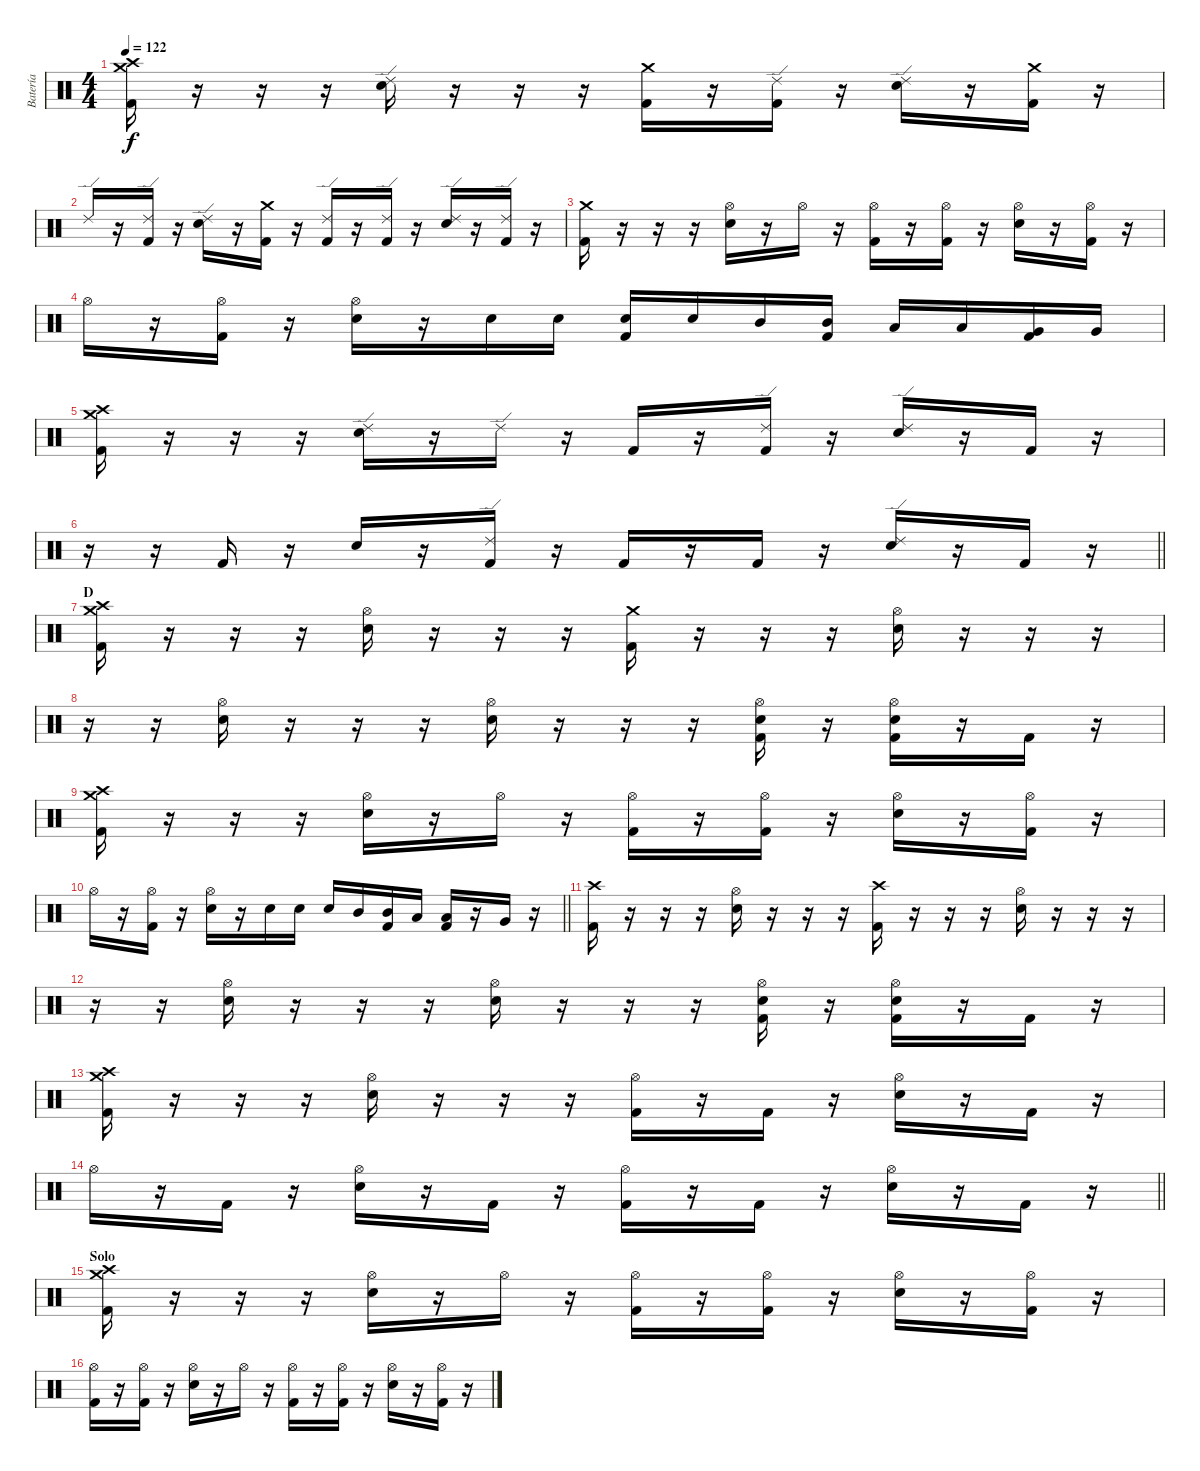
\track ("Batería" "Batería") {instrument percussion}
\staff {score}
\articulation defaults
\ts (4 4)
\tempo 122
\clef neutral
\ks c
("Crash high (hit)" "Kick (hit) 2" "Crash medium (hit)").16{dy f} r.16 r.16 r.16 ("Electric Snare (hit)" "Ride (edge) 2").16 r.16 r.16 r.16 ("Kick (hit) 2" "Crash medium (hit)").16 r.16 ("Kick (hit) 2" "Ride (edge) 2").16 r.16 ("Electric Snare (hit)" "Ride (edge) 2").16 r.16 ("Kick (hit) 2" "Crash medium (hit)").16 r.16 |
"Ride (edge) 2".16 r.16 ("Kick (hit) 2" "Ride (edge) 2").16 r.16 ("Electric Snare (hit)" "Ride (edge) 2").16 r.16 ("Kick (hit) 2" "Crash medium (hit)").16 r.16 ("Kick (hit) 2" "Ride (edge) 2").16 r.16 ("Kick (hit) 2" "Ride (edge) 2").16 r.16 ("Electric Snare (hit)" "Ride (edge) 2").16 r.16 ("Kick (hit) 2" "Ride (edge) 2").16 r.16 |
("Kick (hit) 2" "Crash medium (hit)").16 r.16 r.16 r.16 ("Electric Snare (hit)" "Hi-Hat (open)").16 r.16 "Hi-Hat (open)".16 r.16 ("Kick (hit) 2" "Hi-Hat (open)").16 r.16 ("Kick (hit) 2" "Hi-Hat (open)").16 r.16 ("Electric Snare (hit)" "Hi-Hat (open)").16 r.16 ("Kick (hit) 2" "Hi-Hat (open)").16 r.16 |
"Hi-Hat (open)".16 r.16 ("Kick (hit) 2" "Hi-Hat (open)").16 r.16 ("Electric Snare (hit)" "Hi-Hat (open)").16 r.16 "Electric Snare (hit)".16 "Electric Snare (hit)".16 ("Electric Snare (hit)" "Kick (hit) 2").16 "Electric Snare (hit)".16 "Mid Tom (hit)".16 ("Mid Tom (hit)" "Kick (hit) 2").16 "Low Tom (hit)".16 "Low Tom (hit)".16 ("Very Low Tom (hit)" "Kick (hit) 2").16 "Very Low Tom (hit)".16 |
("Crash high (hit)" "Kick (hit) 2" "Crash medium (hit)").16 r.16 r.16 r.16 ("Electric Snare (hit)" "Ride (edge) 2").16 r.16 "Ride (edge) 2".16 r.16 "Kick (hit) 2".16 r.16 ("Kick (hit) 2" "Ride (edge) 2").16 r.16 ("Electric Snare (hit)" "Ride (edge) 2").16 r.16 "Kick (hit) 2".16 r.16 |
\barLineRight lightlight
r.16 r.16 "Kick (hit) 2".16 r.16 "Electric Snare (hit)".16 r.16 ("Kick (hit) 2" "Ride (edge) 2").16 r.16 "Kick (hit) 2".16 r.16 "Kick (hit) 2".16 r.16 ("Electric Snare (hit)" "Ride (edge) 2").16 r.16 "Kick (hit) 2".16 r.16 |
\section ("" "D")
("Crash medium (hit)" "Kick (hit) 2" "Crash high (hit)").16 r.16 r.16 r.16 ("Electric Snare (hit)" "Hi-Hat (open)").16 r.16 r.16 r.16 ("Kick (hit) 2" "Crash medium (hit)").16 r.16 r.16 r.16 ("Electric Snare (hit)" "Hi-Hat (open)").16 r.16 r.16 r.16 |
r.16 r.16 ("Electric Snare (hit)" "Hi-Hat (open)").16 r.16 r.16 r.16 ("Electric Snare (hit)" "Hi-Hat (open)").16 r.16 r.16 r.16 ("Electric Snare (hit)" "Kick (hit) 2" "Hi-Hat (open)").16 r.16 ("Electric Snare (hit)" "Kick (hit) 2" "Hi-Hat (open)").16 r.16 "Kick (hit) 2".16 r.16 |
("Crash high (hit)" "Kick (hit) 2" "Crash medium (hit)").16 r.16 r.16 r.16 ("Electric Snare (hit)" "Hi-Hat (open)").16 r.16 "Hi-Hat (open)".16 r.16 ("Kick (hit) 2" "Hi-Hat (open)").16 r.16 ("Kick (hit) 2" "Hi-Hat (open)").16 r.16 ("Electric Snare (hit)" "Hi-Hat (open)").16 r.16 ("Kick (hit) 2" "Hi-Hat (open)").16 r.16 |
\barLineRight lightlight "Hi-Hat (open)".16
r.16 ("Kick (hit) 2" "Hi-Hat (open)").16 r.16 ("Electric Snare (hit)" "Hi-Hat (open)").16 r.16 "Electric Snare (hit)".16 "Electric Snare (hit)".16 "Electric Snare (hit)".16 "Mid Tom (hit)".16 ("Mid Tom (hit)" "Kick (hit) 2").16 "Low Tom (hit)".16 ("Low Tom (hit)" "Kick (hit) 2").16 r.16 "Very Low Tom (hit)".16 r.16 |
("Kick (hit) 2" "Crash high (hit)").16 r.16 r.16 r.16 ("Electric Snare (hit)" "Hi-Hat (open)").16 r.16 r.16 r.16 ("Kick (hit) 2" "Crash high (hit)").16 r.16 r.16 r.16 ("Electric Snare (hit)" "Hi-Hat (open)").16 r.16 r.16 r.16 |
r.16 r.16 ("Electric Snare (hit)" "Hi-Hat (open)").16 r.16 r.16 r.16 ("Electric Snare (hit)" "Hi-Hat (open)").16 r.16 r.16 r.16 ("Electric Snare (hit)" "Kick (hit) 2" "Hi-Hat (open)").16 r.16 ("Electric Snare (hit)" "Kick (hit) 2" "Hi-Hat (open)").16 r.16 "Kick (hit) 2".16 r.16 |
("Crash medium (hit)" "Kick (hit) 2" "Crash high (hit)").16 r.16 r.16 r.16 ("Electric Snare (hit)" "Hi-Hat (open)").16 r.16 r.16 r.16 ("Kick (hit) 2" "Hi-Hat (open)").16 r.16 "Kick (hit) 2".16 r.16 ("Electric Snare (hit)" "Hi-Hat (open)").16 r.16 "Kick (hit) 2".16 r.16 |
\barLineRight lightlight "Hi-Hat (open)".16
r.16 "Kick (hit) 2".16 r.16 ("Electric Snare (hit)" "Hi-Hat (open)").16 r.16 "Kick (hit) 2".16 r.16 ("Kick (hit) 2" "Hi-Hat (open)").16 r.16 "Kick (hit) 2".16 r.16 ("Electric Snare (hit)" "Hi-Hat (open)").16 r.16 "Kick (hit) 2".16 r.16 |
\section ("" "Solo")
("Crash high (hit)" "Kick (hit) 2" "Crash medium (hit)").16 r.16 r.16 r.16 ("Electric Snare (hit)" "Hi-Hat (open)").16 r.16 "Hi-Hat (open)".16 r.16 ("Kick (hit) 2" "Hi-Hat (open)").16 r.16 ("Kick (hit) 2" "Hi-Hat (open)").16 r.16 ("Electric Snare (hit)" "Hi-Hat (open)").16 r.16 ("Kick (hit) 2" "Hi-Hat (open)").16 r.16 |
("Kick (hit) 2" "Hi-Hat (open)").16 r.16 ("Kick (hit) 2" "Hi-Hat (open)").16 r.16 ("Electric Snare (hit)" "Hi-Hat (open)").16 r.16 "Hi-Hat (open)".16 r.16 ("Kick (hit) 2" "Hi-Hat (open)").16 r.16 ("Kick (hit) 2" "Hi-Hat (open)").16 r.16 ("Electric Snare (hit)" "Hi-Hat (open)").16 r.16 ("Kick (hit) 2" "Hi-Hat (open)").16 r.16
